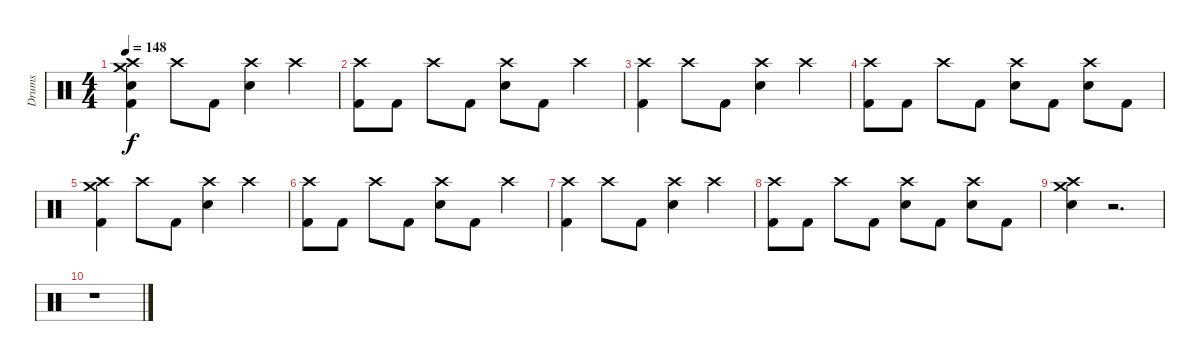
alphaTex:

\track ("Drums" "Drums") {instrument percussion}
\staff {score}
\articulation defaults
\ts (4 4)
\tempo 148
\clef neutral
\ks c
("Crash medium (hit)" "Crash high (hit)" "Electric Snare (hit)" "Kick (hit) 2").4{dy f} "Crash high (hit)".8 "Kick (hit) 2".8 ("Crash high (hit)" "Electric Snare (hit)").4 "Crash high (hit)".4 |
("Crash high (hit)" "Kick (hit) 2").8 "Kick (hit) 2".8 "Crash high (hit)".8 "Kick (hit) 2".8 ("Crash high (hit)" "Electric Snare (hit)").8 "Kick (hit) 2".8 "Crash high (hit)".4 |
("Crash high (hit)" "Kick (hit) 2").4 "Crash high (hit)".8 "Kick (hit) 2".8 ("Crash high (hit)" "Electric Snare (hit)").4 "Crash high (hit)".4 |
("Crash high (hit)" "Kick (hit) 2").8 "Kick (hit) 2".8 "Crash high (hit)".8 "Kick (hit) 2".8 ("Crash high (hit)" "Electric Snare (hit)").8 "Kick (hit) 2".8 ("Crash high (hit)" "Electric Snare (hit)").8 "Kick (hit) 2".8 |
("Crash medium (hit)" "Crash high (hit)" "Kick (hit) 2").4 "Crash high (hit)".8 "Kick (hit) 2".8 ("Crash high (hit)" "Electric Snare (hit)").4 "Crash high (hit)".4 |
("Crash high (hit)" "Kick (hit) 2").8 "Kick (hit) 2".8 "Crash high (hit)".8 "Kick (hit) 2".8 ("Crash high (hit)" "Electric Snare (hit)").8 "Kick (hit) 2".8 "Crash high (hit)".4 |
("Crash high (hit)" "Kick (hit) 2").4 "Crash high (hit)".8 "Kick (hit) 2".8 ("Crash high (hit)" "Electric Snare (hit)").4 "Crash high (hit)".4 |
("Crash high (hit)" "Kick (hit) 2").8 "Kick (hit) 2".8 "Crash high (hit)".8 "Kick (hit) 2".8 ("Crash high (hit)" "Electric Snare (hit)").8 "Kick (hit) 2".8 ("Crash high (hit)" "Electric Snare (hit)").8 "Kick (hit) 2".8 |
("Crash medium (hit)" "Crash high (hit)" "Electric Snare (hit)").4 r.2{d} |
r.1
